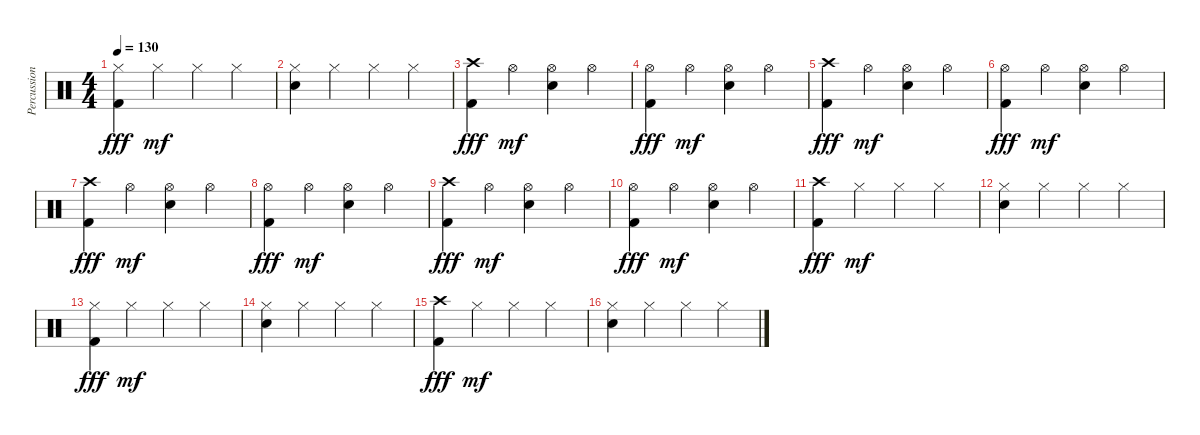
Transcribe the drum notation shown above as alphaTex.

\track ("Percussion" "Percussion") {instrument percussion}
\staff {score}
\articulation defaults
\ts (4 4)
\tempo 130
\clef neutral
\ks c
("Hi-Hat (closed)" "Kick (hit) 2").4{dy fff} "Hi-Hat (closed)".4{dy mf} "Hi-Hat (closed)".4 "Hi-Hat (closed)".4 |
("Hi-Hat (closed)" "Electric Snare (hit)").4 "Hi-Hat (closed)".4 "Hi-Hat (closed)".4 "Hi-Hat (closed)".4 |
("Crash high (hit)" "Kick (hit) 2").4{dy fff} "Hi-Hat (open)".4{dy mf} ("Hi-Hat (open)" "Electric Snare (hit)").4 "Hi-Hat (open)".4 |
("Hi-Hat (open)" "Kick (hit) 2").4{dy fff} "Hi-Hat (open)".4{dy mf} ("Hi-Hat (open)" "Electric Snare (hit)").4 "Hi-Hat (open)".4 |
("Crash high (hit)" "Kick (hit) 2").4{dy fff} "Hi-Hat (open)".4{dy mf} ("Hi-Hat (open)" "Electric Snare (hit)").4 "Hi-Hat (open)".4 |
("Hi-Hat (open)" "Kick (hit) 2").4{dy fff} "Hi-Hat (open)".4{dy mf} ("Hi-Hat (open)" "Electric Snare (hit)").4 "Hi-Hat (open)".4 |
("Crash high (hit)" "Kick (hit) 2").4{dy fff} "Hi-Hat (open)".4{dy mf} ("Hi-Hat (open)" "Electric Snare (hit)").4 "Hi-Hat (open)".4 |
("Hi-Hat (open)" "Kick (hit) 2").4{dy fff} "Hi-Hat (open)".4{dy mf} ("Hi-Hat (open)" "Electric Snare (hit)").4 "Hi-Hat (open)".4 |
("Crash high (hit)" "Kick (hit) 2").4{dy fff} "Hi-Hat (open)".4{dy mf} ("Hi-Hat (open)" "Electric Snare (hit)").4 "Hi-Hat (open)".4 |
("Hi-Hat (open)" "Kick (hit) 2").4{dy fff} "Hi-Hat (open)".4{dy mf} ("Hi-Hat (open)" "Electric Snare (hit)").4 "Hi-Hat (open)".4 |
("Crash high (hit)" "Kick (hit) 2").4{dy fff} "Hi-Hat (closed)".4{dy mf} "Hi-Hat (closed)".4 "Hi-Hat (closed)".4 |
("Hi-Hat (closed)" "Electric Snare (hit)").4 "Hi-Hat (closed)".4 "Hi-Hat (closed)".4 "Hi-Hat (closed)".4 |
("Hi-Hat (closed)" "Kick (hit) 2").4{dy fff} "Hi-Hat (closed)".4{dy mf} "Hi-Hat (closed)".4 "Hi-Hat (closed)".4 |
("Hi-Hat (closed)" "Electric Snare (hit)").4 "Hi-Hat (closed)".4 "Hi-Hat (closed)".4 "Hi-Hat (closed)".4 |
("Crash high (hit)" "Kick (hit) 2").4{dy fff} "Hi-Hat (closed)".4{dy mf} "Hi-Hat (closed)".4 "Hi-Hat (closed)".4 |
("Hi-Hat (closed)" "Electric Snare (hit)").4 "Hi-Hat (closed)".4 "Hi-Hat (closed)".4 "Hi-Hat (closed)".4
